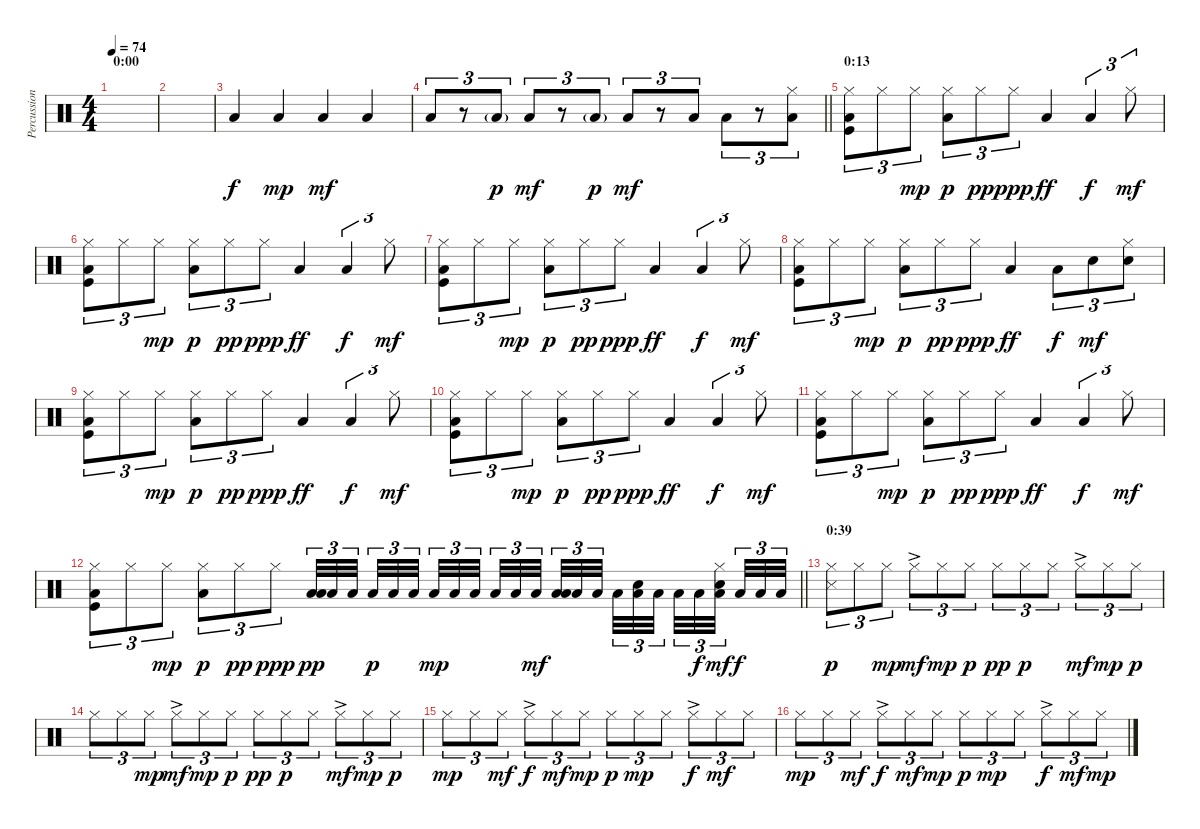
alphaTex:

\track ("Percussion" "Percussion") {instrument percussion}
\staff {score}
\articulation defaults
\ts (4 4)
\section ("" "0:00 ")
\tempo 74
\clef neutral
\ks c
|
|
"Low Floor Tom (hit)".4 "Low Floor Tom (hit)".4{dy mp} "Low Floor Tom (hit)".4{dy mf} "Low Floor Tom (hit)".4 |
\barLineRight lightlight "Low Floor Tom (hit)".8{tu (3 2)}
r.8{tu (3 2)} "Low Floor Tom (hit)"{g}.8{tu (3 2) dy p} "Low Floor Tom (hit)".8{tu (3 2) dy mf} r.8{tu (3 2)} "Low Floor Tom (hit)"{g}.8{tu (3 2) dy p} "Low Floor Tom (hit)".8{tu (3 2) dy mf} r.8{tu (3 2)} "Low Floor Tom (hit)".8{tu (3 2)} "Low Floor Tom (hit)".8{tu (3 2)} r.8{tu (3 2)} ("Hi-Hat (closed)" "Low Floor Tom (hit)").8{tu (3 2)} |
\section ("" "0:13 ")
("Low Floor Tom (hit)" "Hi-Hat (closed)" "Kick (hit)").8{tu (3 2)} "Hi-Hat (closed)".8{tu (3 2)} "Hi-Hat (closed)".8{tu (3 2) dy mp} ("Low Floor Tom (hit)" "Hi-Hat (closed)").8{tu (3 2) dy p} "Hi-Hat (closed)".8{tu (3 2) dy pp} "Hi-Hat (closed)".8{tu (3 2) dy ppp} "Low Floor Tom (hit)".4{dy ff} "Low Floor Tom (hit)".4{tu (3 2) dy f} "Hi-Hat (closed)".8{tu (3 2) dy mf} |
("Low Floor Tom (hit)" "Hi-Hat (closed)" "Kick (hit)").8{tu (3 2)} "Hi-Hat (closed)".8{tu (3 2)} "Hi-Hat (closed)".8{tu (3 2) dy mp} ("Low Floor Tom (hit)" "Hi-Hat (closed)").8{tu (3 2) dy p} "Hi-Hat (closed)".8{tu (3 2) dy pp} "Hi-Hat (closed)".8{tu (3 2) dy ppp} "Low Floor Tom (hit)".4{dy ff} "Low Floor Tom (hit)".4{tu (3 2) dy f} "Hi-Hat (closed)".8{tu (3 2) dy mf} |
("Low Floor Tom (hit)" "Hi-Hat (closed)" "Kick (hit)").8{tu (3 2)} "Hi-Hat (closed)".8{tu (3 2)} "Hi-Hat (closed)".8{tu (3 2) dy mp} ("Low Floor Tom (hit)" "Hi-Hat (closed)").8{tu (3 2) dy p} "Hi-Hat (closed)".8{tu (3 2) dy pp} "Hi-Hat (closed)".8{tu (3 2) dy ppp} "Low Floor Tom (hit)".4{dy ff} "Low Floor Tom (hit)".4{tu (3 2) dy f} "Hi-Hat (closed)".8{tu (3 2) dy mf} |
("Low Floor Tom (hit)" "Hi-Hat (closed)" "Kick (hit)").8{tu (3 2)} "Hi-Hat (closed)".8{tu (3 2)} "Hi-Hat (closed)".8{tu (3 2) dy mp} ("Low Floor Tom (hit)" "Hi-Hat (closed)").8{tu (3 2) dy p} "Hi-Hat (closed)".8{tu (3 2) dy pp} "Hi-Hat (closed)".8{tu (3 2) dy ppp} "Low Floor Tom (hit)".4{dy ff} "Low Floor Tom (hit)".8{tu (3 2) dy f} "Snare (hit) 2".8{tu (3 2) dy mf} ("Snare (hit) 2" "Hi-Hat (closed)").8{tu (3 2)} |
("Low Floor Tom (hit)" "Hi-Hat (closed)" "Kick (hit)").8{tu (3 2)} "Hi-Hat (closed)".8{tu (3 2)} "Hi-Hat (closed)".8{tu (3 2) dy mp} ("Low Floor Tom (hit)" "Hi-Hat (closed)").8{tu (3 2) dy p} "Hi-Hat (closed)".8{tu (3 2) dy pp} "Hi-Hat (closed)".8{tu (3 2) dy ppp} "Low Floor Tom (hit)".4{dy ff} "Low Floor Tom (hit)".4{tu (3 2) dy f} "Hi-Hat (closed)".8{tu (3 2) dy mf} |
("Low Floor Tom (hit)" "Hi-Hat (closed)" "Kick (hit)").8{tu (3 2)} "Hi-Hat (closed)".8{tu (3 2)} "Hi-Hat (closed)".8{tu (3 2) dy mp} ("Low Floor Tom (hit)" "Hi-Hat (closed)").8{tu (3 2) dy p} "Hi-Hat (closed)".8{tu (3 2) dy pp} "Hi-Hat (closed)".8{tu (3 2) dy ppp} "Low Floor Tom (hit)".4{dy ff} "Low Floor Tom (hit)".4{tu (3 2) dy f} "Hi-Hat (closed)".8{tu (3 2) dy mf} |
("Low Floor Tom (hit)" "Hi-Hat (closed)" "Kick (hit)").8{tu (3 2)} "Hi-Hat (closed)".8{tu (3 2)} "Hi-Hat (closed)".8{tu (3 2) dy mp} ("Low Floor Tom (hit)" "Hi-Hat (closed)").8{tu (3 2) dy p} "Hi-Hat (closed)".8{tu (3 2) dy pp} "Hi-Hat (closed)".8{tu (3 2) dy ppp} "Low Floor Tom (hit)".4{dy ff} "Low Floor Tom (hit)".4{tu (3 2) dy f} "Hi-Hat (closed)".8{tu (3 2) dy mf} |
\barLineRight lightlight
("Low Floor Tom (hit)" "Hi-Hat (closed)" "Kick (hit)").8{tu (3 2)} "Hi-Hat (closed)".8{tu (3 2)} "Hi-Hat (closed)".8{tu (3 2) dy mp} ("Low Floor Tom (hit)" "Hi-Hat (closed)").8{tu (3 2) dy p} "Hi-Hat (closed)".8{tu (3 2) dy pp} "Hi-Hat (closed)".8{tu (3 2) dy ppp} ("Low Floor Tom (hit)" "Low Floor Tom (hit)").32{tu (3 2) dy pp} "Low Floor Tom (hit)".32{tu (3 2)} "Low Floor Tom (hit)".32{tu (3 2)} "Low Floor Tom (hit)".32{tu (3 2) dy p} "Low Floor Tom (hit)".32{tu (3 2)} "Low Floor Tom (hit)".32{tu (3 2)} "Low Floor Tom (hit)".32{tu (3 2) dy mp} "Low Floor Tom (hit)".32{tu (3 2)} "Low Floor Tom (hit)".32{tu (3 2)} "Low Floor Tom (hit)".32{tu (3 2)} "Low Floor Tom (hit)".32{tu (3 2)} "Low Floor Tom (hit)".32{tu (3 2) dy mf} ("Low Floor Tom (hit)" "Low Floor Tom (hit)").32{tu (3 2)} "Low Floor Tom (hit)".32{tu (3 2)} "Low Floor Tom (hit)".32{tu (3 2)} "Low Floor Tom (hit)".32{tu (3 2)} ("Snare (hit) 2" "Low Floor Tom (hit)").32{tu (3 2)} "Low Floor Tom (hit)".32{tu (3 2)} "Low Floor Tom (hit)".32{tu (3 2)} "Low Floor Tom (hit)".32{tu (3 2) dy f} ("Snare (hit) 2" "Hi-Hat (closed)" "Low Floor Tom (hit)").32{tu (3 2) dy mf} "Low Floor Tom (hit)".32{tu (3 2) dy f} "Low Floor Tom (hit)".32{tu (3 2)} "Low Floor Tom (hit)".32{tu (3 2)} |
\section ("" "0:39")
("Snare (side stick) 3" "Hi-Hat (closed)").8{tu (3 2) dy p} "Hi-Hat (closed)".8{tu (3 2)} "Hi-Hat (closed)".8{tu (3 2) dy mp} "Hi-Hat (closed)"{ac}.8{tu (3 2) dy mf} "Hi-Hat (closed)".8{tu (3 2) dy mp} "Hi-Hat (closed)".8{tu (3 2) dy p} "Hi-Hat (closed)".8{tu (3 2) dy pp} "Hi-Hat (closed)".8{tu (3 2) dy p} "Hi-Hat (closed)".8{tu (3 2)} "Hi-Hat (closed)"{ac}.8{tu (3 2) dy mf} "Hi-Hat (closed)".8{tu (3 2) dy mp} "Hi-Hat (closed)".8{tu (3 2) dy p} |
"Hi-Hat (closed)".8{tu (3 2)} "Hi-Hat (closed)".8{tu (3 2)} "Hi-Hat (closed)".8{tu (3 2) dy mp} "Hi-Hat (closed)"{ac}.8{tu (3 2) dy mf} "Hi-Hat (closed)".8{tu (3 2) dy mp} "Hi-Hat (closed)".8{tu (3 2) dy p} "Hi-Hat (closed)".8{tu (3 2) dy pp} "Hi-Hat (closed)".8{tu (3 2) dy p} "Hi-Hat (closed)".8{tu (3 2)} "Hi-Hat (closed)"{ac}.8{tu (3 2) dy mf} "Hi-Hat (closed)".8{tu (3 2) dy mp} "Hi-Hat (closed)".8{tu (3 2) dy p} |
"Hi-Hat (closed)".8{tu (3 2) dy mp} "Hi-Hat (closed)".8{tu (3 2)} "Hi-Hat (closed)".8{tu (3 2) dy mf} "Hi-Hat (closed)"{ac}.8{tu (3 2) dy f} "Hi-Hat (closed)".8{tu (3 2) dy mf} "Hi-Hat (closed)".8{tu (3 2) dy mp} "Hi-Hat (closed)".8{tu (3 2) dy p} "Hi-Hat (closed)".8{tu (3 2) dy mp} "Hi-Hat (closed)".8{tu (3 2)} "Hi-Hat (closed)"{ac}.8{tu (3 2) dy f} "Hi-Hat (closed)".8{tu (3 2) dy mf} "Hi-Hat (closed)".8{tu (3 2)} |
"Hi-Hat (closed)".8{tu (3 2) dy mp} "Hi-Hat (closed)".8{tu (3 2)} "Hi-Hat (closed)".8{tu (3 2) dy mf} "Hi-Hat (closed)"{ac}.8{tu (3 2) dy f} "Hi-Hat (closed)".8{tu (3 2) dy mf} "Hi-Hat (closed)".8{tu (3 2) dy mp} "Hi-Hat (closed)".8{tu (3 2) dy p} "Hi-Hat (closed)".8{tu (3 2) dy mp} "Hi-Hat (closed)".8{tu (3 2)} "Hi-Hat (closed)"{ac}.8{tu (3 2) dy f} "Hi-Hat (closed)".8{tu (3 2) dy mf} "Hi-Hat (closed)".8{tu (3 2) dy mp}
